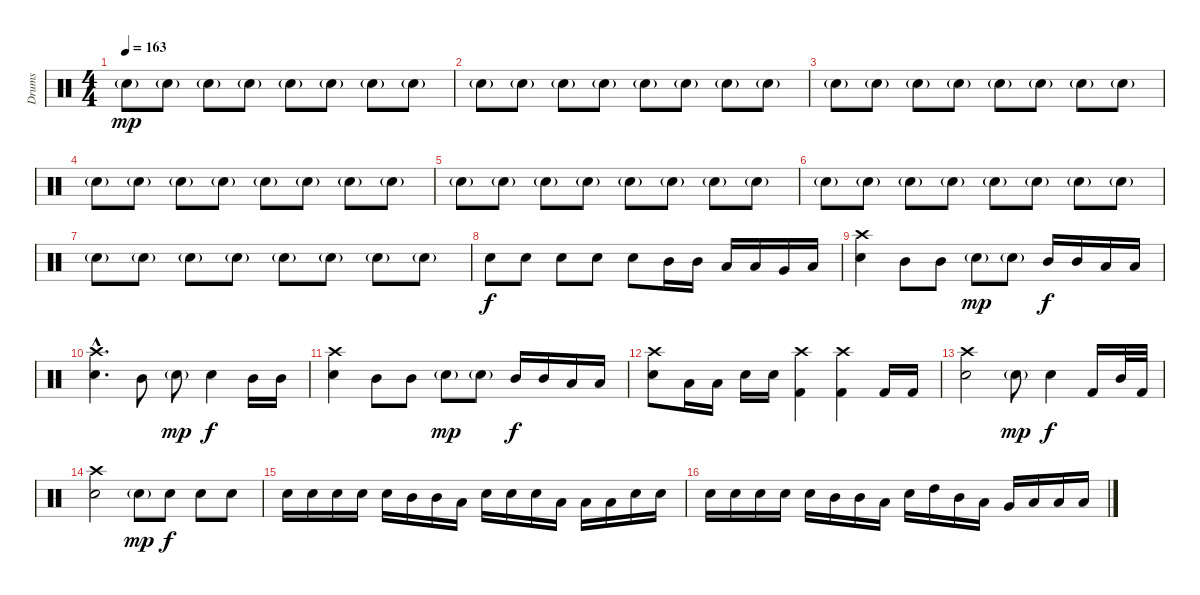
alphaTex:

\track ("Drums" "Drums") {instrument percussion}
\staff {score}
\articulation defaults
\ts (4 4)
\tempo 163
\clef neutral
\ks c "Electric Snare (hit)"{g}.8{dy mp} "Electric Snare (hit)"{g}.8 "Electric Snare (hit)"{g}.8 "Electric Snare (hit)"{g}.8 "Electric Snare (hit)"{g}.8 "Electric Snare (hit)"{g}.8 "Electric Snare (hit)"{g}.8 "Electric Snare (hit)"{g}.8
|
"Electric Snare (hit)"{g}.8 "Electric Snare (hit)"{g}.8 "Electric Snare (hit)"{g}.8 "Electric Snare (hit)"{g}.8 "Electric Snare (hit)"{g}.8 "Electric Snare (hit)"{g}.8 "Electric Snare (hit)"{g}.8 "Electric Snare (hit)"{g}.8 |
"Electric Snare (hit)"{g}.8 "Electric Snare (hit)"{g}.8 "Electric Snare (hit)"{g}.8 "Electric Snare (hit)"{g}.8 "Electric Snare (hit)"{g}.8 "Electric Snare (hit)"{g}.8 "Electric Snare (hit)"{g}.8 "Electric Snare (hit)"{g}.8 |
"Electric Snare (hit)"{g}.8 "Electric Snare (hit)"{g}.8 "Electric Snare (hit)"{g}.8 "Electric Snare (hit)"{g}.8 "Electric Snare (hit)"{g}.8 "Electric Snare (hit)"{g}.8 "Electric Snare (hit)"{g}.8 "Electric Snare (hit)"{g}.8 |
"Electric Snare (hit)"{g}.8 "Electric Snare (hit)"{g}.8 "Electric Snare (hit)"{g}.8 "Electric Snare (hit)"{g}.8 "Electric Snare (hit)"{g}.8 "Electric Snare (hit)"{g}.8 "Electric Snare (hit)"{g}.8 "Electric Snare (hit)"{g}.8 |
"Electric Snare (hit)"{g}.8 "Electric Snare (hit)"{g}.8 "Electric Snare (hit)"{g}.8 "Electric Snare (hit)"{g}.8 "Electric Snare (hit)"{g}.8 "Electric Snare (hit)"{g}.8 "Electric Snare (hit)"{g}.8 "Electric Snare (hit)"{g}.8 |
"Electric Snare (hit)"{g}.8 "Electric Snare (hit)"{g}.8 "Electric Snare (hit)"{g}.8 "Electric Snare (hit)"{g}.8 "Electric Snare (hit)"{g}.8 "Electric Snare (hit)"{g}.8 "Electric Snare (hit)"{g}.8 "Electric Snare (hit)"{g}.8 |
"Electric Snare (hit)".8{dy f} "Electric Snare (hit)".8 "Electric Snare (hit)".8 "Electric Snare (hit)".8 "Electric Snare (hit)".8 "Mid Tom (hit)".16 "Mid Tom (hit)".16 "Low Tom (hit)".16 "Low Floor Tom (hit)".16 "Very Low Tom (hit)".16 "Low Tom (hit)".16 |
("Crash high (hit)" "Electric Snare (hit)").4 "Mid Tom (hit)".8 "Mid Tom (hit)".8 "Electric Snare (hit)"{g}.8{dy mp} "Electric Snare (hit)"{g}.8 "Mid Tom (hit)".16{dy f} "Mid Tom (hit)".16 "Low Tom (hit)".16 "Low Tom (hit)".16 |
("Crash high (hit)"{hac} "Electric Snare (hit)"{hac}).4{d} "Mid Tom (hit)".8 "Electric Snare (hit)"{g}.8{dy mp} "Electric Snare (hit)".4{dy f} "Mid Tom (hit)".16 "Mid Tom (hit)".16 |
("Crash high (hit)" "Electric Snare (hit)").4 "Mid Tom (hit)".8 "Mid Tom (hit)".8 "Electric Snare (hit)"{g}.8{dy mp} "Electric Snare (hit)"{g}.8 "Mid Tom (hit)".16{dy f} "Mid Tom (hit)".16 "Low Tom (hit)".16 "Low Tom (hit)".16 |
("Crash high (hit)" "Electric Snare (hit)").8 "Low Tom (hit)".16 "Low Tom (hit)".16 "Electric Snare (hit)".16 "Electric Snare (hit)".16 ("Crash high (hit)" "Kick (hit) 2").4 ("Crash high (hit)" "Kick (hit) 2").4 "Kick (hit) 2".16 "Kick (hit) 2".16 |
("Crash high (hit)" "Electric Snare (hit)").2 "Electric Snare (hit)"{g}.8{dy mp} "Electric Snare (hit)".4{dy f} "Kick (hit) 2".16 "Mid Tom (hit)".32 "Kick (hit) 2".32 |
("Crash high (hit)" "Electric Snare (hit)").2 "Electric Snare (hit)"{g}.8{dy mp} "Electric Snare (hit)".8{dy f} "Electric Snare (hit)".8 "Electric Snare (hit)".8 |
"Electric Snare (hit)".16 "Electric Snare (hit)".16 "Electric Snare (hit)".16 "Electric Snare (hit)".16 "Electric Snare (hit)".16 "Mid Tom (hit)".16 "Mid Tom (hit)".16 "Low Tom (hit)".16 "Electric Snare (hit)".16 "Electric Snare (hit)".16 "Electric Snare (hit)".16 "Low Tom (hit)".16 "Low Floor Tom (hit)".16 "Low Floor Tom (hit)".16 "Electric Snare (hit)".16 "Electric Snare (hit)".16 |
"Electric Snare (hit)".16 "Electric Snare (hit)".16 "Electric Snare (hit)".16 "Electric Snare (hit)".16 "Electric Snare (hit)".16 "Mid Tom (hit)".16 "Mid Tom (hit)".16 "Low Tom (hit)".16 "Electric Snare (hit)".16 "High Tom (hit)".16 "Mid Tom (hit)".16 "Low Tom (hit)".16 "Very Low Tom (hit)".16 "Low Floor Tom (hit)".16 "Low Floor Tom (hit)".16 "Low Floor Tom (hit)".16
